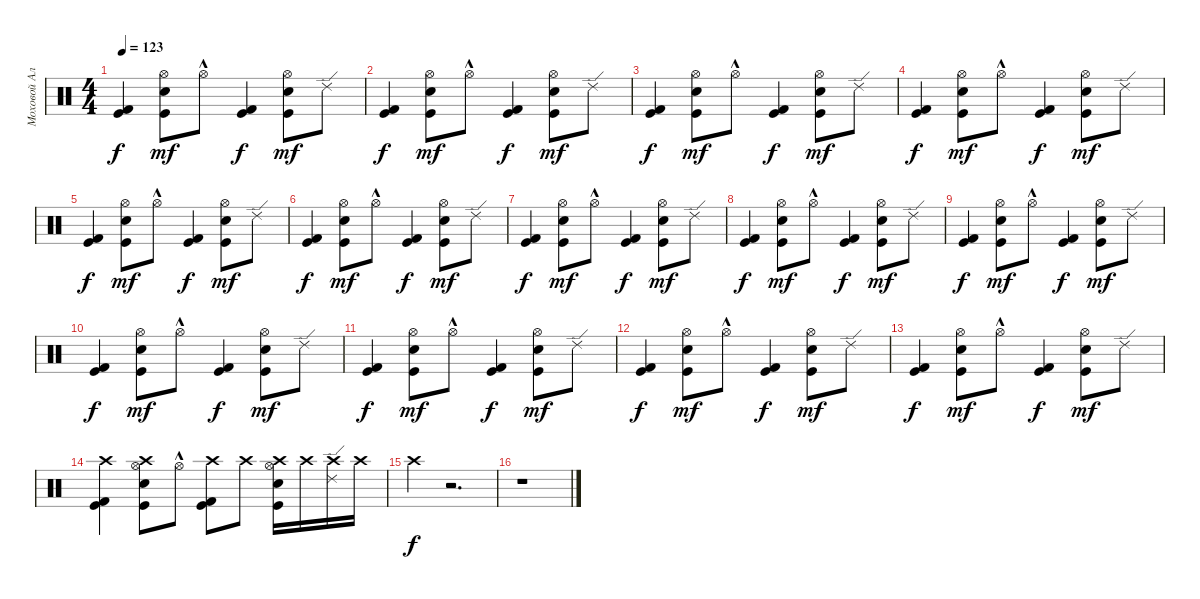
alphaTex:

\track ("Moxoвой Алексей" "Moxoвой Ал") {instrument percussion}
\staff {score}
\articulation defaults
\ts (4 4)
\tempo 123
\clef neutral
\ks c
("Kick (hit)" "Kick (hit) 2").4{dy f} ("Hand Clap (hit)" "Hi-Hat (open)" "Kick (hit)").8{dy mf} "Hi-Hat (open)"{hac}.8 ("Kick (hit) 2" "Kick (hit)").4{dy f} ("Hand Clap (hit)" "Hi-Hat (open)" "Kick (hit)").8{dy mf} "Ride (edge) 2".8 |
("Kick (hit) 2" "Kick (hit)").4{dy f} ("Hi-Hat (open)" "Hand Clap (hit)" "Kick (hit)").8{dy mf} "Hi-Hat (open)"{hac}.8 ("Kick (hit) 2" "Kick (hit)").4{dy f} ("Kick (hit)" "Hi-Hat (open)" "Hand Clap (hit)").8{dy mf} "Ride (edge) 2".8 |
("Kick (hit)" "Kick (hit) 2").4{dy f} ("Kick (hit)" "Hi-Hat (open)" "Hand Clap (hit)").8{dy mf} "Hi-Hat (open)"{hac}.8 ("Kick (hit)" "Kick (hit) 2").4{dy f} ("Hi-Hat (open)" "Kick (hit)" "Hand Clap (hit)").8{dy mf} "Ride (edge) 2".8 |
("Kick (hit) 2" "Kick (hit)").4{dy f} ("Hi-Hat (open)" "Kick (hit)" "Hand Clap (hit)").8{dy mf} "Hi-Hat (open)"{hac}.8 ("Kick (hit)" "Kick (hit) 2").4{dy f} ("Kick (hit)" "Hand Clap (hit)" "Hi-Hat (open)").8{dy mf} "Ride (edge) 2".8 |
("Kick (hit) 2" "Kick (hit)").4{dy f} ("Hi-Hat (open)" "Kick (hit)" "Hand Clap (hit)").8{dy mf} "Hi-Hat (open)"{hac}.8 ("Kick (hit)" "Kick (hit) 2").4{dy f} ("Kick (hit)" "Hand Clap (hit)" "Hi-Hat (open)").8{dy mf} "Ride (edge) 2".8 |
("Kick (hit) 2" "Kick (hit)").4{dy f} ("Kick (hit)" "Hand Clap (hit)" "Hi-Hat (open)").8{dy mf} "Hi-Hat (open)"{hac}.8 ("Kick (hit) 2" "Kick (hit)").4{dy f} ("Kick (hit)" "Hand Clap (hit)" "Hi-Hat (open)").8{dy mf} "Ride (edge) 2".8 |
("Kick (hit) 2" "Kick (hit)").4{dy f} ("Kick (hit)" "Hand Clap (hit)" "Hi-Hat (open)").8{dy mf} "Hi-Hat (open)"{hac}.8 ("Kick (hit) 2" "Kick (hit)").4{dy f} ("Kick (hit)" "Hand Clap (hit)" "Hi-Hat (open)").8{dy mf} "Ride (edge) 2".8 |
("Kick (hit) 2" "Kick (hit)").4{dy f} ("Kick (hit)" "Hand Clap (hit)" "Hi-Hat (open)").8{dy mf} "Hi-Hat (open)"{hac}.8 ("Kick (hit) 2" "Kick (hit)").4{dy f} ("Hand Clap (hit)" "Kick (hit)" "Hi-Hat (open)").8{dy mf} "Ride (edge) 2".8 |
("Kick (hit) 2" "Kick (hit)").4{dy f} ("Kick (hit)" "Hand Clap (hit)" "Hi-Hat (open)").8{dy mf} "Hi-Hat (open)"{hac}.8 ("Kick (hit) 2" "Kick (hit)").4{dy f} ("Hand Clap (hit)" "Kick (hit)" "Hi-Hat (open)").8{dy mf} "Ride (edge) 2".8 |
("Kick (hit) 2" "Kick (hit)").4{dy f} ("Kick (hit)" "Hand Clap (hit)" "Hi-Hat (open)").8{dy mf} "Hi-Hat (open)"{hac}.8 ("Kick (hit) 2" "Kick (hit)").4{dy f} ("Kick (hit)" "Hand Clap (hit)" "Hi-Hat (open)").8{dy mf} "Ride (edge) 2".8 |
("Kick (hit) 2" "Kick (hit)").4{dy f} ("Kick (hit)" "Hand Clap (hit)" "Hi-Hat (open)").8{dy mf} "Hi-Hat (open)"{hac}.8 ("Kick (hit) 2" "Kick (hit)").4{dy f} ("Kick (hit)" "Hand Clap (hit)" "Hi-Hat (open)").8{dy mf} "Ride (edge) 2".8 |
("Kick (hit)" "Kick (hit) 2").4{dy f} ("Kick (hit)" "Hand Clap (hit)" "Hi-Hat (open)").8{dy mf} "Hi-Hat (open)"{hac}.8 ("Kick (hit)" "Kick (hit) 2").4{dy f} ("Hand Clap (hit)" "Hi-Hat (open)" "Kick (hit)").8{dy mf} "Ride (edge) 2".8 |
("Kick (hit)" "Kick (hit) 2").4{dy f} ("Hand Clap (hit)" "Hi-Hat (open)" "Kick (hit)").8{dy mf} "Hi-Hat (open)"{hac}.8 ("Kick (hit)" "Kick (hit) 2").4{dy f} ("Hand Clap (hit)" "Kick (hit)" "Hi-Hat (open)").8{dy mf} "Ride (edge) 2".8 |
("Kick (hit) 2" "Kick (hit)" "Crash high (hit)").4 ("Kick (hit)" "Hi-Hat (open)" "Hand Clap (hit)" "Crash high (hit)").8 "Hi-Hat (open)"{hac}.8 ("Kick (hit) 2" "Crash high (hit)" "Kick (hit)").8 "Crash high (hit)".8 ("Hand Clap (hit)" "Hi-Hat (open)" "Crash high (hit)" "Kick (hit)").16 "Crash high (hit)".16 ("Crash high (hit)" "Ride (edge) 2").16 "Crash high (hit)".16 |
"Crash high (hit)".4{dy f} r.2{d} |
r.1
